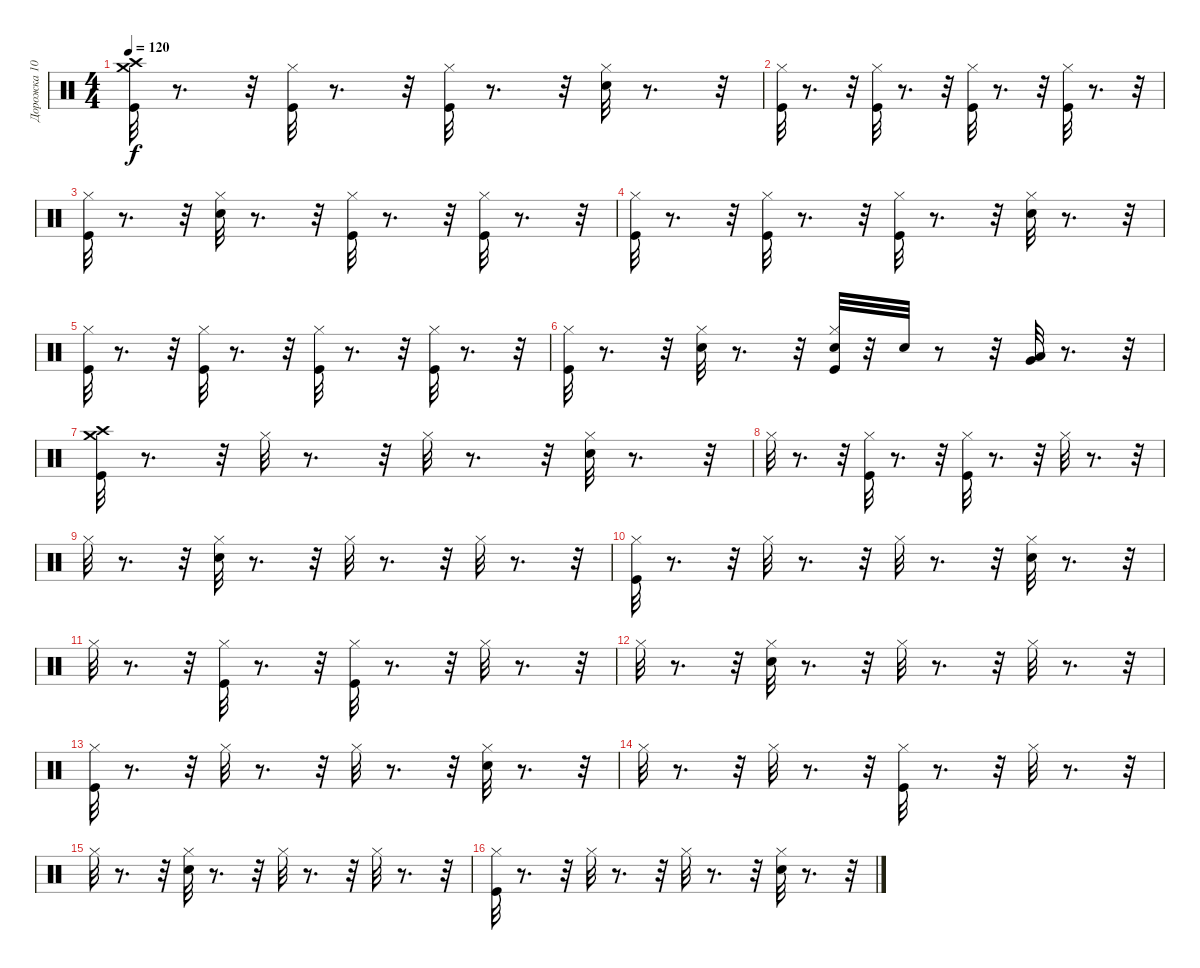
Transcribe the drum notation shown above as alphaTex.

\track ("Дорожка 10" "Дорожка 10") {instrument percussion}
\staff {score}
\articulation defaults
\ts (4 4)
\tempo 120
\clef neutral
\ks c
("Crash medium (hit)" "Crash high (hit)" "Kick (hit)").32{dy f} r.8{d} r.32 ("Kick (hit)" "Hi-Hat (closed)").32 r.8{d} r.32 ("Kick (hit)" "Hi-Hat (closed)").32 r.8{d} r.32 ("Hi-Hat (closed)" "Snare (hit) 2").32 r.8{d} r.32 |
("Kick (hit)" "Hi-Hat (closed)").32 r.8{d} r.32 ("Kick (hit)" "Hi-Hat (closed)").32 r.8{d} r.32 ("Hi-Hat (closed)" "Kick (hit)").32 r.8{d} r.32 ("Kick (hit)" "Hi-Hat (closed)").32 r.8{d} r.32 |
("Kick (hit)" "Hi-Hat (closed)").32 r.8{d} r.32 ("Hi-Hat (closed)" "Snare (hit) 2").32 r.8{d} r.32 ("Kick (hit)" "Hi-Hat (closed)").32 r.8{d} r.32 ("Kick (hit)" "Hi-Hat (closed)").32 r.8{d} r.32 |
("Hi-Hat (closed)" "Kick (hit)").32 r.8{d} r.32 ("Kick (hit)" "Hi-Hat (closed)").32 r.8{d} r.32 ("Kick (hit)" "Hi-Hat (closed)").32 r.8{d} r.32 ("Hi-Hat (closed)" "Snare (hit) 2").32 r.8{d} r.32 |
("Kick (hit)" "Hi-Hat (closed)").32 r.8{d} r.32 ("Kick (hit)" "Hi-Hat (closed)").32 r.8{d} r.32 ("Hi-Hat (closed)" "Kick (hit)").32 r.8{d} r.32 ("Kick (hit)" "Hi-Hat (closed)").32 r.8{d} r.32 |
("Kick (hit)" "Hi-Hat (closed)").32 r.8{d} r.32 ("Snare (hit) 2" "Hi-Hat (closed)").32 r.8{d} r.32 ("Snare (hit) 2" "Kick (hit)" "Hi-Hat (closed)").32 r.32 "Snare (hit) 2".32 r.8 r.32 ("Very Low Tom (hit)" "Low Floor Tom (hit)").32 r.8{d} r.32 |
("Crash medium (hit)" "Crash high (hit)" "Kick (hit)").32 r.8{d} r.32 "Hi-Hat (closed)".32 r.8{d} r.32 "Hi-Hat (closed)".32 r.8{d} r.32 ("Hi-Hat (closed)" "Snare (hit) 2").32 r.8{d} r.32 |
"Hi-Hat (closed)".32 r.8{d} r.32 ("Hi-Hat (closed)" "Kick (hit)").32 r.8{d} r.32 ("Hi-Hat (closed)" "Kick (hit)").32 r.8{d} r.32 "Hi-Hat (closed)".32 r.8{d} r.32 |
"Hi-Hat (closed)".32 r.8{d} r.32 ("Hi-Hat (closed)" "Snare (hit) 2").32 r.8{d} r.32 "Hi-Hat (closed)".32 r.8{d} r.32 "Hi-Hat (closed)".32 r.8{d} r.32 |
("Hi-Hat (closed)" "Kick (hit)").32 r.8{d} r.32 "Hi-Hat (closed)".32 r.8{d} r.32 "Hi-Hat (closed)".32 r.8{d} r.32 ("Hi-Hat (closed)" "Snare (hit) 2").32 r.8{d} r.32 |
"Hi-Hat (closed)".32 r.8{d} r.32 ("Kick (hit)" "Hi-Hat (closed)").32 r.8{d} r.32 ("Hi-Hat (closed)" "Kick (hit)").32 r.8{d} r.32 "Hi-Hat (closed)".32 r.8{d} r.32 |
"Hi-Hat (closed)".32 r.8{d} r.32 ("Hi-Hat (closed)" "Snare (hit) 2").32 r.8{d} r.32 "Hi-Hat (closed)".32 r.8{d} r.32 "Hi-Hat (closed)".32 r.8{d} r.32 |
("Hi-Hat (closed)" "Kick (hit)").32 r.8{d} r.32 "Hi-Hat (closed)".32 r.8{d} r.32 "Hi-Hat (closed)".32 r.8{d} r.32 ("Hi-Hat (closed)" "Snare (hit) 2").32 r.8{d} r.32 |
"Hi-Hat (closed)".32 r.8{d} r.32 "Hi-Hat (closed)".32 r.8{d} r.32 ("Hi-Hat (closed)" "Kick (hit)").32 r.8{d} r.32 "Hi-Hat (closed)".32 r.8{d} r.32 |
"Hi-Hat (closed)".32 r.8{d} r.32 ("Hi-Hat (closed)" "Snare (hit) 2").32 r.8{d} r.32 "Hi-Hat (closed)".32 r.8{d} r.32 "Hi-Hat (closed)".32 r.8{d} r.32 |
("Hi-Hat (closed)" "Kick (hit)").32 r.8{d} r.32 "Hi-Hat (closed)".32 r.8{d} r.32 "Hi-Hat (closed)".32 r.8{d} r.32 ("Hi-Hat (closed)" "Snare (hit) 2").32 r.8{d} r.32
